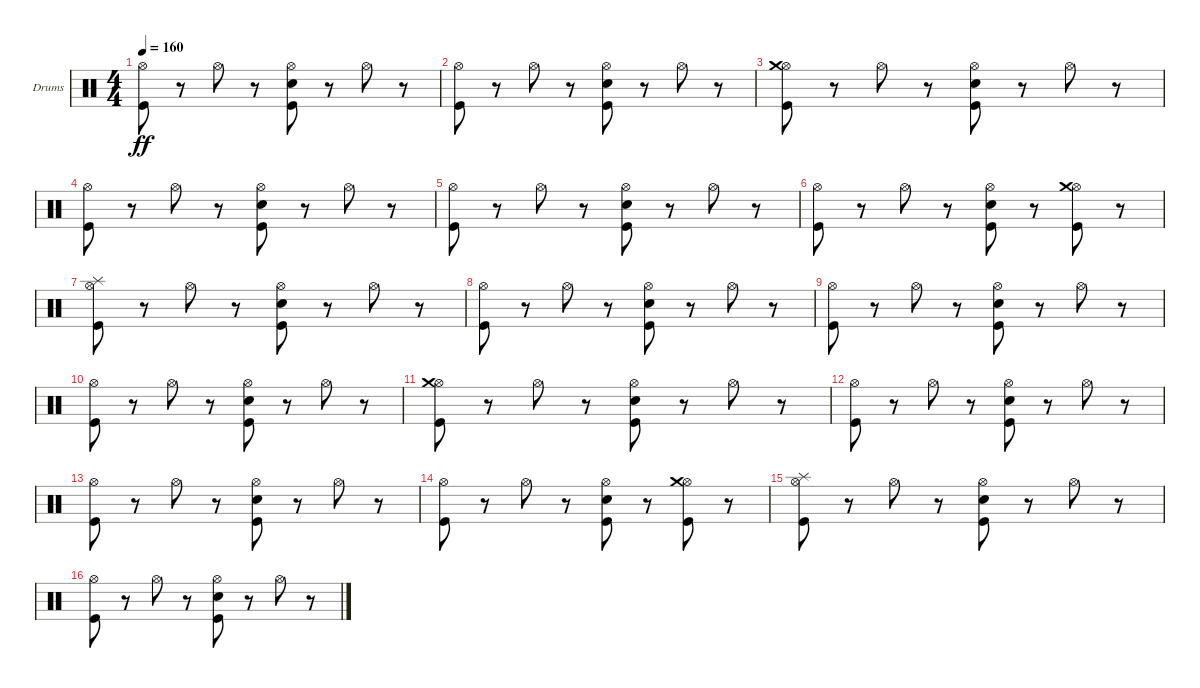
\bracketExtendMode groupsimilarinstruments
\firstSystemTrackNameOrientation horizontal
\otherSystemsTrackNameOrientation horizontal
\track ("Drumkit" "Drums") {instrument percussion}
\staff {score}
\articulation defaults
\ts (4 4)
\tempo 160
\clef neutral
\ks c
("Hi-Hat (open)" "Kick (hit)").8{dy ff} r.8 "Hi-Hat (open)".8 r.8 ("Hi-Hat (open)" "Snare (hit) 2" "Kick (hit)").8 r.8 "Hi-Hat (open)".8 r.8 |
("Hi-Hat (open)" "Kick (hit)").8 r.8 "Hi-Hat (open)".8 r.8 ("Hi-Hat (open)" "Snare (hit) 2" "Kick (hit)").8 r.8 "Hi-Hat (open)".8 r.8 |
("Hi-Hat (open)" "Crash medium (hit)" "Kick (hit)").8 r.8 "Hi-Hat (open)".8 r.8 ("Hi-Hat (open)" "Snare (hit) 2" "Kick (hit)").8 r.8 "Hi-Hat (open)".8 r.8 |
("Hi-Hat (open)" "Kick (hit)").8 r.8 "Hi-Hat (open)".8 r.8 ("Hi-Hat (open)" "Snare (hit) 2" "Kick (hit)").8 r.8 "Hi-Hat (open)".8 r.8 |
("Hi-Hat (open)" "Kick (hit)").8 r.8 "Hi-Hat (open)".8 r.8 ("Hi-Hat (open)" "Snare (hit) 2" "Kick (hit)").8 r.8 "Hi-Hat (open)".8 r.8 |
("Hi-Hat (open)" "Kick (hit)").8 r.8 "Hi-Hat (open)".8 r.8 ("Hi-Hat (open)" "Snare (hit) 2" "Kick (hit)").8 r.8 ("Hi-Hat (open)" "Crash medium (hit)" "Kick (hit)").8 r.8 |
("Hi-Hat (open)" "Splash (hit)" "Kick (hit)").8 r.8 "Hi-Hat (open)".8 r.8 ("Hi-Hat (open)" "Snare (hit) 2" "Kick (hit)").8 r.8 "Hi-Hat (open)".8 r.8 |
("Hi-Hat (open)" "Kick (hit)").8 r.8 "Hi-Hat (open)".8 r.8 ("Hi-Hat (open)" "Snare (hit) 2" "Kick (hit)").8 r.8 "Hi-Hat (open)".8 r.8 |
("Hi-Hat (open)" "Kick (hit)").8 r.8 "Hi-Hat (open)".8 r.8 ("Hi-Hat (open)" "Snare (hit) 2" "Kick (hit)").8 r.8 "Hi-Hat (open)".8 r.8 |
("Hi-Hat (open)" "Kick (hit)").8 r.8 "Hi-Hat (open)".8 r.8 ("Hi-Hat (open)" "Snare (hit) 2" "Kick (hit)").8 r.8 "Hi-Hat (open)".8 r.8 |
("Hi-Hat (open)" "Crash medium (hit)" "Kick (hit)").8 r.8 "Hi-Hat (open)".8 r.8 ("Hi-Hat (open)" "Snare (hit) 2" "Kick (hit)").8 r.8 "Hi-Hat (open)".8 r.8 |
("Hi-Hat (open)" "Kick (hit)").8 r.8 "Hi-Hat (open)".8 r.8 ("Hi-Hat (open)" "Snare (hit) 2" "Kick (hit)").8 r.8 "Hi-Hat (open)".8 r.8 |
("Hi-Hat (open)" "Kick (hit)").8 r.8 "Hi-Hat (open)".8 r.8 ("Hi-Hat (open)" "Snare (hit) 2" "Kick (hit)").8 r.8 "Hi-Hat (open)".8 r.8 |
("Hi-Hat (open)" "Kick (hit)").8 r.8 "Hi-Hat (open)".8 r.8 ("Hi-Hat (open)" "Snare (hit) 2" "Kick (hit)").8 r.8 ("Hi-Hat (open)" "Crash medium (hit)" "Kick (hit)").8 r.8 |
("Hi-Hat (open)" "Splash (hit)" "Kick (hit)").8 r.8 "Hi-Hat (open)".8 r.8 ("Hi-Hat (open)" "Snare (hit) 2" "Kick (hit)").8 r.8 "Hi-Hat (open)".8 r.8 |
("Hi-Hat (open)" "Kick (hit)").8 r.8 "Hi-Hat (open)".8 r.8 ("Hi-Hat (open)" "Snare (hit) 2" "Kick (hit)").8 r.8 "Hi-Hat (open)".8 r.8
